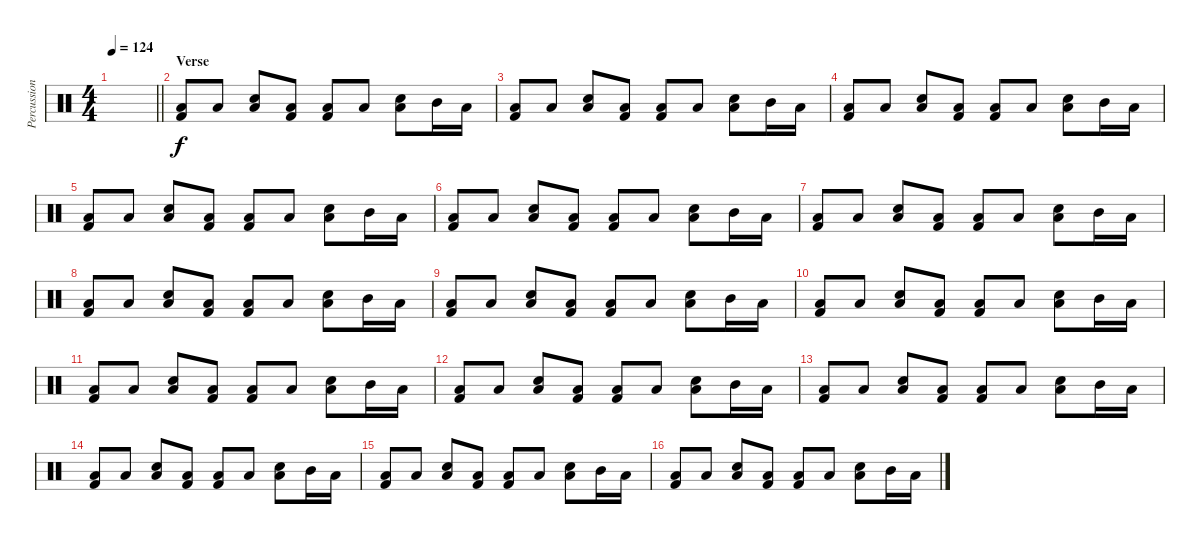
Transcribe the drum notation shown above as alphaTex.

\track ("Percussioni" "Percussion") {instrument percussion}
\staff {score}
\articulation defaults
\ts (4 4)
\tempo 124
\clef neutral
\barLineRight lightlight
\ks c
|
\section ("" "Verse")
("Low Floor Tom (hit)" "Kick (hit) 2").8 "Low Floor Tom (hit)".8 ("Snare (hit) 2" "Low Floor Tom (hit)").8 ("Low Floor Tom (hit)" "Kick (hit) 2").8 ("Low Floor Tom (hit)" "Kick (hit) 2").8 "Low Floor Tom (hit)".8 ("Snare (hit) 2" "Low Floor Tom (hit)").8 "Mid Tom (hit)".16 "Low Floor Tom (hit)".16 |
("Low Floor Tom (hit)" "Kick (hit) 2").8 "Low Floor Tom (hit)".8 ("Snare (hit) 2" "Low Floor Tom (hit)").8 ("Low Floor Tom (hit)" "Kick (hit) 2").8 ("Low Floor Tom (hit)" "Kick (hit) 2").8 "Low Floor Tom (hit)".8 ("Snare (hit) 2" "Low Floor Tom (hit)").8 "Mid Tom (hit)".16 "Low Floor Tom (hit)".16 |
("Low Floor Tom (hit)" "Kick (hit) 2").8 "Low Floor Tom (hit)".8 ("Snare (hit) 2" "Low Floor Tom (hit)").8 ("Low Floor Tom (hit)" "Kick (hit) 2").8 ("Low Floor Tom (hit)" "Kick (hit) 2").8 "Low Floor Tom (hit)".8 ("Snare (hit) 2" "Low Floor Tom (hit)").8 "Mid Tom (hit)".16 "Low Floor Tom (hit)".16 |
("Low Floor Tom (hit)" "Kick (hit) 2").8 "Low Floor Tom (hit)".8 ("Snare (hit) 2" "Low Floor Tom (hit)").8 ("Low Floor Tom (hit)" "Kick (hit) 2").8 ("Low Floor Tom (hit)" "Kick (hit) 2").8 "Low Floor Tom (hit)".8 ("Snare (hit) 2" "Low Floor Tom (hit)").8 "Mid Tom (hit)".16 "Low Floor Tom (hit)".16 |
("Low Floor Tom (hit)" "Kick (hit) 2").8 "Low Floor Tom (hit)".8 ("Snare (hit) 2" "Low Floor Tom (hit)").8 ("Low Floor Tom (hit)" "Kick (hit) 2").8 ("Low Floor Tom (hit)" "Kick (hit) 2").8 "Low Floor Tom (hit)".8 ("Snare (hit) 2" "Low Floor Tom (hit)").8 "Mid Tom (hit)".16 "Low Floor Tom (hit)".16 |
("Low Floor Tom (hit)" "Kick (hit) 2").8 "Low Floor Tom (hit)".8 ("Snare (hit) 2" "Low Floor Tom (hit)").8 ("Low Floor Tom (hit)" "Kick (hit) 2").8 ("Low Floor Tom (hit)" "Kick (hit) 2").8 "Low Floor Tom (hit)".8 ("Snare (hit) 2" "Low Floor Tom (hit)").8 "Mid Tom (hit)".16 "Low Floor Tom (hit)".16 |
("Low Floor Tom (hit)" "Kick (hit) 2").8 "Low Floor Tom (hit)".8 ("Snare (hit) 2" "Low Floor Tom (hit)").8 ("Low Floor Tom (hit)" "Kick (hit) 2").8 ("Low Floor Tom (hit)" "Kick (hit) 2").8 "Low Floor Tom (hit)".8 ("Snare (hit) 2" "Low Floor Tom (hit)").8 "Mid Tom (hit)".16 "Low Floor Tom (hit)".16 |
("Low Floor Tom (hit)" "Kick (hit) 2").8 "Low Floor Tom (hit)".8 ("Snare (hit) 2" "Low Floor Tom (hit)").8 ("Low Floor Tom (hit)" "Kick (hit) 2").8 ("Low Floor Tom (hit)" "Kick (hit) 2").8 "Low Floor Tom (hit)".8 ("Snare (hit) 2" "Low Floor Tom (hit)").8 "Mid Tom (hit)".16 "Low Floor Tom (hit)".16 |
("Low Floor Tom (hit)" "Kick (hit) 2").8 "Low Floor Tom (hit)".8 ("Snare (hit) 2" "Low Floor Tom (hit)").8 ("Low Floor Tom (hit)" "Kick (hit) 2").8 ("Low Floor Tom (hit)" "Kick (hit) 2").8 "Low Floor Tom (hit)".8 ("Snare (hit) 2" "Low Floor Tom (hit)").8 "Mid Tom (hit)".16 "Low Floor Tom (hit)".16 |
("Low Floor Tom (hit)" "Kick (hit) 2").8 "Low Floor Tom (hit)".8 ("Snare (hit) 2" "Low Floor Tom (hit)").8 ("Low Floor Tom (hit)" "Kick (hit) 2").8 ("Low Floor Tom (hit)" "Kick (hit) 2").8 "Low Floor Tom (hit)".8 ("Snare (hit) 2" "Low Floor Tom (hit)").8 "Mid Tom (hit)".16 "Low Floor Tom (hit)".16 |
("Low Floor Tom (hit)" "Kick (hit) 2").8 "Low Floor Tom (hit)".8 ("Snare (hit) 2" "Low Floor Tom (hit)").8 ("Low Floor Tom (hit)" "Kick (hit) 2").8 ("Low Floor Tom (hit)" "Kick (hit) 2").8 "Low Floor Tom (hit)".8 ("Snare (hit) 2" "Low Floor Tom (hit)").8 "Mid Tom (hit)".16 "Low Floor Tom (hit)".16 |
("Low Floor Tom (hit)" "Kick (hit) 2").8 "Low Floor Tom (hit)".8 ("Snare (hit) 2" "Low Floor Tom (hit)").8 ("Low Floor Tom (hit)" "Kick (hit) 2").8 ("Low Floor Tom (hit)" "Kick (hit) 2").8 "Low Floor Tom (hit)".8 ("Snare (hit) 2" "Low Floor Tom (hit)").8 "Mid Tom (hit)".16 "Low Floor Tom (hit)".16 |
("Low Floor Tom (hit)" "Kick (hit) 2").8 "Low Floor Tom (hit)".8 ("Snare (hit) 2" "Low Floor Tom (hit)").8 ("Low Floor Tom (hit)" "Kick (hit) 2").8 ("Low Floor Tom (hit)" "Kick (hit) 2").8 "Low Floor Tom (hit)".8 ("Snare (hit) 2" "Low Floor Tom (hit)").8 "Mid Tom (hit)".16 "Low Floor Tom (hit)".16 |
("Low Floor Tom (hit)" "Kick (hit) 2").8 "Low Floor Tom (hit)".8 ("Snare (hit) 2" "Low Floor Tom (hit)").8 ("Low Floor Tom (hit)" "Kick (hit) 2").8 ("Low Floor Tom (hit)" "Kick (hit) 2").8 "Low Floor Tom (hit)".8 ("Snare (hit) 2" "Low Floor Tom (hit)").8 "Mid Tom (hit)".16 "Low Floor Tom (hit)".16 |
("Low Floor Tom (hit)" "Kick (hit) 2").8 "Low Floor Tom (hit)".8 ("Snare (hit) 2" "Low Floor Tom (hit)").8 ("Low Floor Tom (hit)" "Kick (hit) 2").8 ("Low Floor Tom (hit)" "Kick (hit) 2").8 "Low Floor Tom (hit)".8 ("Snare (hit) 2" "Low Floor Tom (hit)").8 "Mid Tom (hit)".16 "Low Floor Tom (hit)".16
